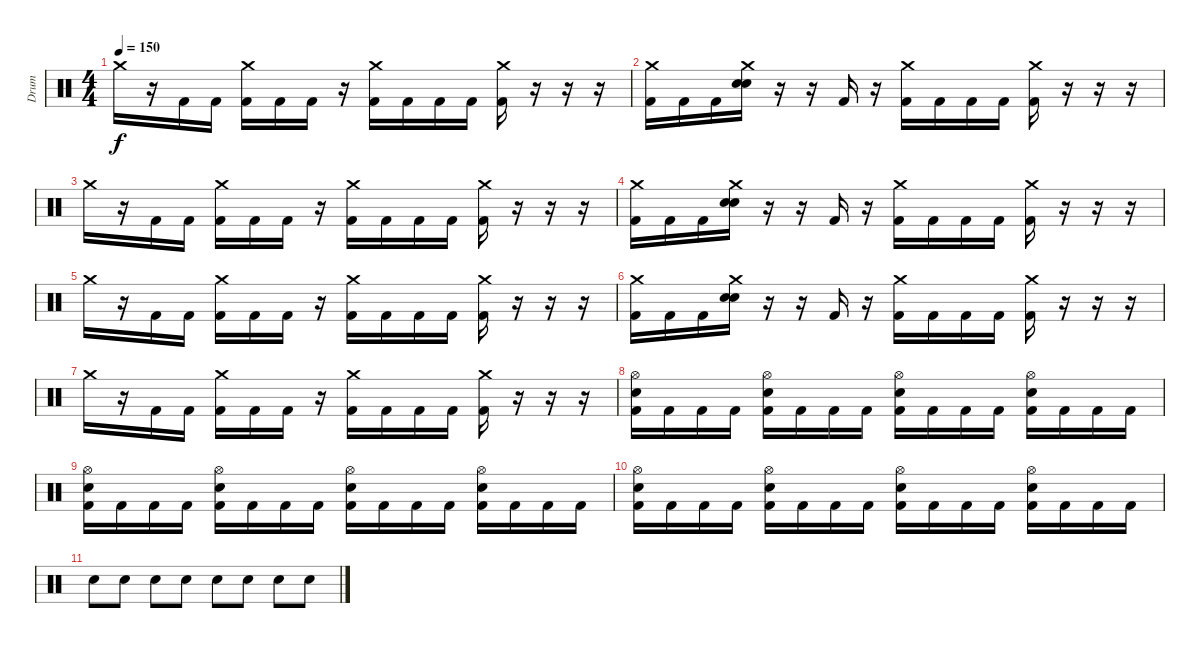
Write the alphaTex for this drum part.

\track ("Drum" "Drum") {instrument percussion}
\staff {score}
\articulation defaults
\ts (4 4)
\tempo 150
\clef neutral
\ks c "Crash medium (hit)".16{dy f}
r.16 "Kick (hit) 2".16 "Kick (hit) 2".16 ("Crash medium (hit)" "Kick (hit) 2").16 "Kick (hit) 2".16 "Kick (hit) 2".16 r.16 ("Crash medium (hit)" "Kick (hit) 2").16 "Kick (hit) 2".16 "Kick (hit) 2".16 "Kick (hit) 2".16 ("Crash medium (hit)" "Kick (hit) 2").16 r.16 r.16 r.16 |
("Crash medium (hit)" "Kick (hit) 2").16 "Kick (hit) 2".16 "Kick (hit) 2".16 ("Crash medium (hit)" "Snare (hit) 2" "Electric Snare (hit)").16 r.16 r.16 "Kick (hit) 2".16 r.16 ("Crash medium (hit)" "Kick (hit) 2").16 "Kick (hit) 2".16 "Kick (hit) 2".16 "Kick (hit) 2".16 ("Crash medium (hit)" "Kick (hit) 2").16 r.16 r.16 r.16 |
"Crash medium (hit)".16 r.16 "Kick (hit) 2".16 "Kick (hit) 2".16 ("Crash medium (hit)" "Kick (hit) 2").16 "Kick (hit) 2".16 "Kick (hit) 2".16 r.16 ("Crash medium (hit)" "Kick (hit) 2").16 "Kick (hit) 2".16 "Kick (hit) 2".16 "Kick (hit) 2".16 ("Crash medium (hit)" "Kick (hit) 2").16 r.16 r.16 r.16 |
("Crash medium (hit)" "Kick (hit) 2").16 "Kick (hit) 2".16 "Kick (hit) 2".16 ("Crash medium (hit)" "Snare (hit) 2" "Electric Snare (hit)").16 r.16 r.16 "Kick (hit) 2".16 r.16 ("Crash medium (hit)" "Kick (hit) 2").16 "Kick (hit) 2".16 "Kick (hit) 2".16 "Kick (hit) 2".16 ("Crash medium (hit)" "Kick (hit) 2").16 r.16 r.16 r.16 |
"Crash medium (hit)".16 r.16 "Kick (hit) 2".16 "Kick (hit) 2".16 ("Crash medium (hit)" "Kick (hit) 2").16 "Kick (hit) 2".16 "Kick (hit) 2".16 r.16 ("Crash medium (hit)" "Kick (hit) 2").16 "Kick (hit) 2".16 "Kick (hit) 2".16 "Kick (hit) 2".16 ("Crash medium (hit)" "Kick (hit) 2").16 r.16 r.16 r.16 |
("Crash medium (hit)" "Kick (hit) 2").16 "Kick (hit) 2".16 "Kick (hit) 2".16 ("Crash medium (hit)" "Snare (hit) 2" "Electric Snare (hit)").16 r.16 r.16 "Kick (hit) 2".16 r.16 ("Crash medium (hit)" "Kick (hit) 2").16 "Kick (hit) 2".16 "Kick (hit) 2".16 "Kick (hit) 2".16 ("Crash medium (hit)" "Kick (hit) 2").16 r.16 r.16 r.16 |
"Crash medium (hit)".16 r.16 "Kick (hit) 2".16 "Kick (hit) 2".16 ("Crash medium (hit)" "Kick (hit) 2").16 "Kick (hit) 2".16 "Kick (hit) 2".16 r.16 ("Crash medium (hit)" "Kick (hit) 2").16 "Kick (hit) 2".16 "Kick (hit) 2".16 "Kick (hit) 2".16 ("Crash medium (hit)" "Kick (hit) 2").16 r.16 r.16 r.16 |
("Hi-Hat (open)" "Electric Snare (hit)" "Kick (hit) 2").16 "Kick (hit) 2".16 "Kick (hit) 2".16 "Kick (hit) 2".16 ("Hi-Hat (open)" "Electric Snare (hit)" "Kick (hit) 2").16 "Kick (hit) 2".16 "Kick (hit) 2".16 "Kick (hit) 2".16 ("Hi-Hat (open)" "Electric Snare (hit)" "Kick (hit) 2").16 "Kick (hit) 2".16 "Kick (hit) 2".16 "Kick (hit) 2".16 ("Hi-Hat (open)" "Electric Snare (hit)" "Kick (hit) 2").16 "Kick (hit) 2".16 "Kick (hit) 2".16 "Kick (hit) 2".16 |
("Hi-Hat (open)" "Electric Snare (hit)" "Kick (hit) 2").16 "Kick (hit) 2".16 "Kick (hit) 2".16 "Kick (hit) 2".16 ("Hi-Hat (open)" "Electric Snare (hit)" "Kick (hit) 2").16 "Kick (hit) 2".16 "Kick (hit) 2".16 "Kick (hit) 2".16 ("Hi-Hat (open)" "Electric Snare (hit)" "Kick (hit) 2").16 "Kick (hit) 2".16 "Kick (hit) 2".16 "Kick (hit) 2".16 ("Hi-Hat (open)" "Electric Snare (hit)" "Kick (hit) 2").16 "Kick (hit) 2".16 "Kick (hit) 2".16 "Kick (hit) 2".16 |
("Hi-Hat (open)" "Electric Snare (hit)" "Kick (hit) 2").16 "Kick (hit) 2".16 "Kick (hit) 2".16 "Kick (hit) 2".16 ("Hi-Hat (open)" "Electric Snare (hit)" "Kick (hit) 2").16 "Kick (hit) 2".16 "Kick (hit) 2".16 "Kick (hit) 2".16 ("Hi-Hat (open)" "Electric Snare (hit)" "Kick (hit) 2").16 "Kick (hit) 2".16 "Kick (hit) 2".16 "Kick (hit) 2".16 ("Hi-Hat (open)" "Electric Snare (hit)" "Kick (hit) 2").16 "Kick (hit) 2".16 "Kick (hit) 2".16 "Kick (hit) 2".16 |
"Electric Snare (hit)".8 "Electric Snare (hit)".8 "Electric Snare (hit)".8 "Electric Snare (hit)".8 "Electric Snare (hit)".8 "Electric Snare (hit)".8 "Electric Snare (hit)".8 "Electric Snare (hit)".8
